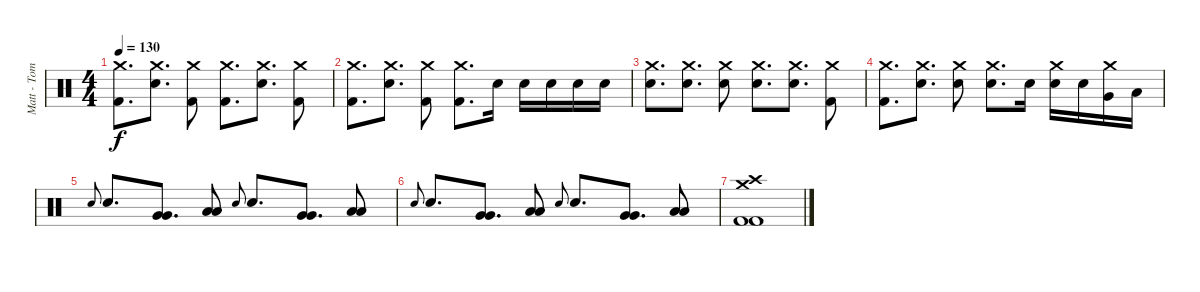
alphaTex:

\track ("Matt - Tom" "Matt - Tom") {instrument percussion}
\staff {score}
\articulation defaults
\ts (4 4)
\tempo 130
\clef neutral
\ks c
("Crash medium (hit)" "Kick (hit) 2").8{d dy f} ("Crash medium (hit)" "Electric Snare (hit)").8{d} ("Crash medium (hit)" "Kick (hit) 2").8 ("Crash medium (hit)" "Kick (hit) 2").8{d} ("Crash medium (hit)" "Electric Snare (hit)").8{d} ("Crash medium (hit)" "Kick (hit) 2").8 |
("Crash medium (hit)" "Kick (hit) 2").8{d} ("Crash medium (hit)" "Electric Snare (hit)").8{d} ("Crash medium (hit)" "Kick (hit) 2").8 ("Crash medium (hit)" "Kick (hit) 2").8{d} "Electric Snare (hit)".16 "Electric Snare (hit)".16 "Electric Snare (hit)".16 "Electric Snare (hit)".16 "Electric Snare (hit)".16 |
("Crash medium (hit)" "Electric Snare (hit)").8{d} ("Crash medium (hit)" "Electric Snare (hit)").8{d} ("Crash medium (hit)" "Electric Snare (hit)").8 ("Crash medium (hit)" "Electric Snare (hit)").8{d} ("Crash medium (hit)" "Electric Snare (hit)").8{d} ("Crash medium (hit)" "Kick (hit) 2").8 |
("Crash medium (hit)" "Kick (hit) 2").8{d} ("Crash medium (hit)" "Electric Snare (hit)").8{d} ("Crash medium (hit)" "Electric Snare (hit)").8 ("Crash medium (hit)" "Electric Snare (hit)").8{d} "Electric Snare (hit)".16 ("Crash medium (hit)" "Electric Snare (hit)").16 "Electric Snare (hit)".16 ("Crash medium (hit)" "Very Low Tom (hit)").16 "Low Floor Tom (hit)".16 |
"Electric Snare (hit)".8{gr onbeat} "Electric Snare (hit)".8{d} ("Very Low Tom (hit)" "Very Low Tom (hit)").8{d} ("Low Floor Tom (hit)" "Low Floor Tom (hit)").8 "Electric Snare (hit)".8{gr onbeat} "Electric Snare (hit)".8{d} ("Very Low Tom (hit)" "Very Low Tom (hit)").8{d} ("Low Floor Tom (hit)" "Low Floor Tom (hit)").8 |
"Electric Snare (hit)".8{gr onbeat} "Electric Snare (hit)".8{d} ("Very Low Tom (hit)" "Very Low Tom (hit)").8{d} ("Low Floor Tom (hit)" "Low Floor Tom (hit)").8 "Electric Snare (hit)".8{gr onbeat} "Electric Snare (hit)".8{d} ("Very Low Tom (hit)" "Very Low Tom (hit)").8{d} ("Low Floor Tom (hit)" "Low Floor Tom (hit)").8 |
("Crash high (hit)" "Crash medium (hit)" "Kick (hit) 2" "Kick (hit) 2").1
